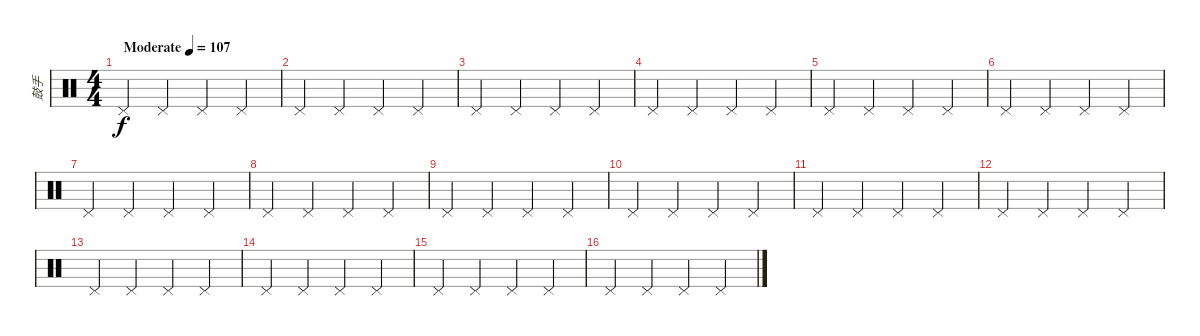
\track ("鼓手" "鼓手") {instrument percussion}
\staff {score}
\articulation defaults
\ts (4 4)
\tempo (107 "Moderate")
\clef neutral
\ks c "Pedal Hi-Hat (hit)".4{dy f} "Pedal Hi-Hat (hit)".4 "Pedal Hi-Hat (hit)".4 "Pedal Hi-Hat (hit)".4
|
"Pedal Hi-Hat (hit)".4 "Pedal Hi-Hat (hit)".4 "Pedal Hi-Hat (hit)".4 "Pedal Hi-Hat (hit)".4 |
"Pedal Hi-Hat (hit)".4 "Pedal Hi-Hat (hit)".4 "Pedal Hi-Hat (hit)".4 "Pedal Hi-Hat (hit)".4 |
"Pedal Hi-Hat (hit)".4 "Pedal Hi-Hat (hit)".4 "Pedal Hi-Hat (hit)".4 "Pedal Hi-Hat (hit)".4 |
"Pedal Hi-Hat (hit)".4 "Pedal Hi-Hat (hit)".4 "Pedal Hi-Hat (hit)".4 "Pedal Hi-Hat (hit)".4 |
"Pedal Hi-Hat (hit)".4 "Pedal Hi-Hat (hit)".4 "Pedal Hi-Hat (hit)".4 "Pedal Hi-Hat (hit)".4 |
"Pedal Hi-Hat (hit)".4 "Pedal Hi-Hat (hit)".4 "Pedal Hi-Hat (hit)".4 "Pedal Hi-Hat (hit)".4 |
"Pedal Hi-Hat (hit)".4 "Pedal Hi-Hat (hit)".4 "Pedal Hi-Hat (hit)".4 "Pedal Hi-Hat (hit)".4 |
"Pedal Hi-Hat (hit)".4 "Pedal Hi-Hat (hit)".4 "Pedal Hi-Hat (hit)".4 "Pedal Hi-Hat (hit)".4 |
"Pedal Hi-Hat (hit)".4 "Pedal Hi-Hat (hit)".4 "Pedal Hi-Hat (hit)".4 "Pedal Hi-Hat (hit)".4 |
"Pedal Hi-Hat (hit)".4 "Pedal Hi-Hat (hit)".4 "Pedal Hi-Hat (hit)".4 "Pedal Hi-Hat (hit)".4 |
"Pedal Hi-Hat (hit)".4 "Pedal Hi-Hat (hit)".4 "Pedal Hi-Hat (hit)".4 "Pedal Hi-Hat (hit)".4 |
"Pedal Hi-Hat (hit)".4 "Pedal Hi-Hat (hit)".4 "Pedal Hi-Hat (hit)".4 "Pedal Hi-Hat (hit)".4 |
"Pedal Hi-Hat (hit)".4 "Pedal Hi-Hat (hit)".4 "Pedal Hi-Hat (hit)".4 "Pedal Hi-Hat (hit)".4 |
"Pedal Hi-Hat (hit)".4 "Pedal Hi-Hat (hit)".4 "Pedal Hi-Hat (hit)".4 "Pedal Hi-Hat (hit)".4 |
"Pedal Hi-Hat (hit)".4 "Pedal Hi-Hat (hit)".4 "Pedal Hi-Hat (hit)".4 "Pedal Hi-Hat (hit)".4
